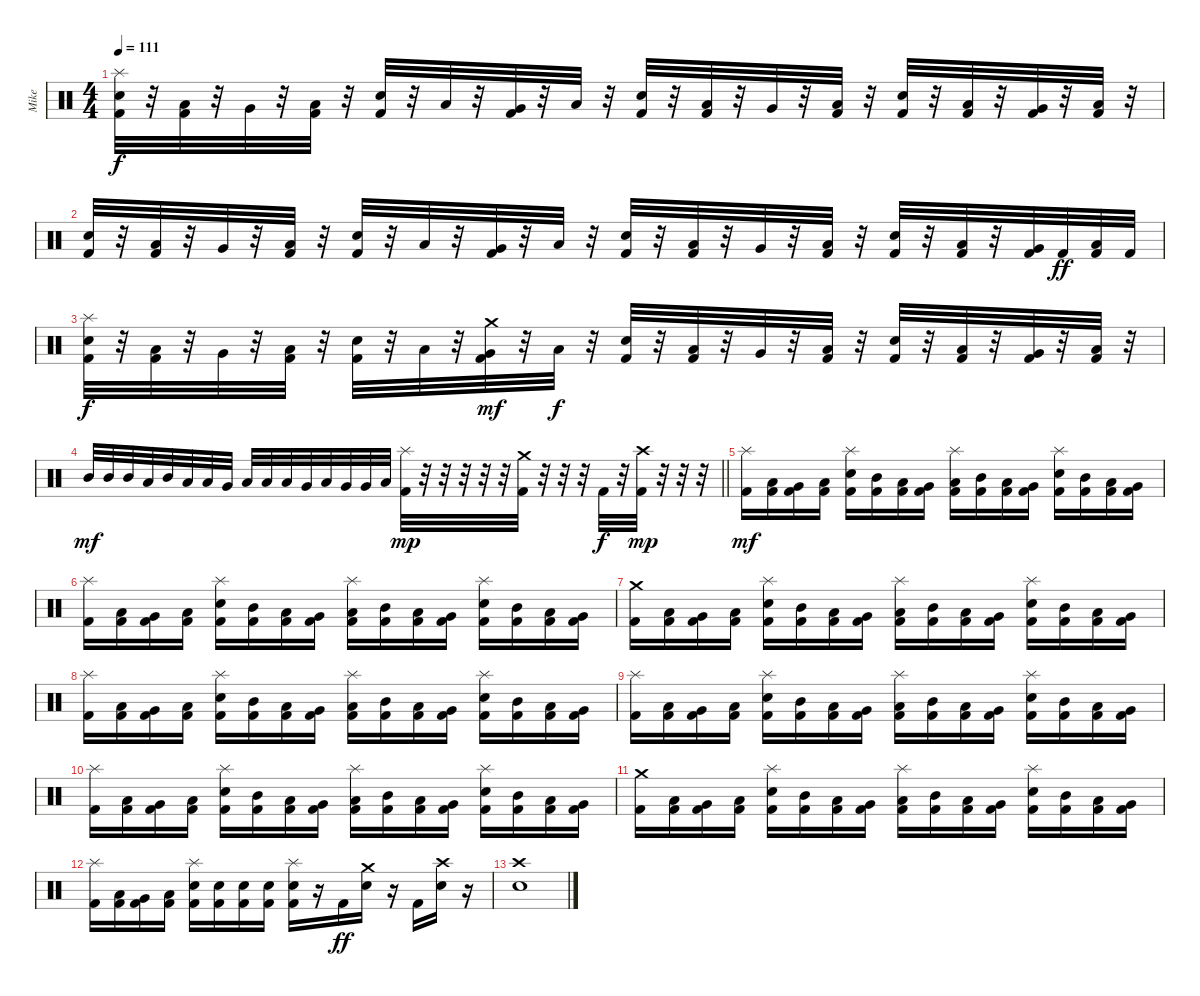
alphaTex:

\track ("Mike" "Mike") {instrument percussion}
\staff {score}
\articulation defaults
\ts (4 4)
\tempo 111
\clef neutral
\ks c
("Splash (hit)" "Snare (hit) 2" "Kick (hit) 2").32{dy f} r.32 ("Low Tom (hit)" "Kick (hit) 2").32 r.32 "Very Low Tom (hit)".32 r.32 ("Low Floor Tom (hit)" "Kick (hit) 2").32 r.32 ("Snare (hit) 2" "Kick (hit) 2").32 r.32 "Low Tom (hit)".32 r.32 ("Very Low Tom (hit)" "Kick (hit) 2").32 r.32 "Low Floor Tom (hit)".32 r.32 ("Snare (hit) 2" "Kick (hit) 2").32 r.32 ("Low Tom (hit)" "Kick (hit) 2").32 r.32 "Very Low Tom (hit)".32 r.32 ("Low Floor Tom (hit)" "Kick (hit) 2").32 r.32 ("Snare (hit) 2" "Kick (hit) 2").32 r.32 ("Low Tom (hit)" "Kick (hit) 2").32 r.32 ("Very Low Tom (hit)" "Kick (hit) 2").32 r.32 ("Low Floor Tom (hit)" "Kick (hit) 2").32 r.32 |
("Snare (hit) 2" "Kick (hit) 2").32 r.32 ("Low Tom (hit)" "Kick (hit) 2").32 r.32 "Very Low Tom (hit)".32 r.32 ("Low Floor Tom (hit)" "Kick (hit) 2").32 r.32 ("Snare (hit) 2" "Kick (hit) 2").32 r.32 "Low Tom (hit)".32 r.32 ("Very Low Tom (hit)" "Kick (hit) 2").32 r.32 "Low Floor Tom (hit)".32 r.32 ("Snare (hit) 2" "Kick (hit) 2").32 r.32 ("Low Tom (hit)" "Kick (hit) 2").32 r.32 "Very Low Tom (hit)".32 r.32 ("Low Floor Tom (hit)" "Kick (hit) 2").32 r.32 ("Snare (hit) 2" "Kick (hit) 2").32 r.32 ("Low Tom (hit)" "Kick (hit) 2").32 r.32 ("Very Low Tom (hit)" "Kick (hit) 2").32 "Kick (hit) 2".32{dy ff} ("Low Floor Tom (hit)" "Kick (hit) 2").32 "Kick (hit) 2".32 |
("Splash (hit)" "Snare (hit) 2" "Kick (hit) 2").32{dy f} r.32 ("Low Tom (hit)" "Kick (hit) 2").32 r.32 "Very Low Tom (hit)".32 r.32 ("Low Floor Tom (hit)" "Kick (hit) 2").32 r.32 ("Snare (hit) 2" "Kick (hit) 2").32 r.32 "Low Tom (hit)".32 r.32 ("Crash medium (hit)" "Very Low Tom (hit)" "Kick (hit) 2").32{dy mf} r.32 "Low Floor Tom (hit)".32{dy f} r.32 ("Snare (hit) 2" "Kick (hit) 2").32 r.32 ("Low Tom (hit)" "Kick (hit) 2").32 r.32 "Very Low Tom (hit)".32 r.32 ("Low Floor Tom (hit)" "Kick (hit) 2").32 r.32 ("Snare (hit) 2" "Kick (hit) 2").32 r.32 ("Low Tom (hit)" "Kick (hit) 2").32 r.32 ("Very Low Tom (hit)" "Kick (hit) 2").32 r.32 ("Low Floor Tom (hit)" "Kick (hit) 2").32 r.32 |
\barLineRight lightlight "Mid Tom (hit)".32{dy mf} "Mid Tom (hit)".32 "Mid Tom (hit)".32 "Low Tom (hit)".32 "Mid Tom (hit)".32 "Low Tom (hit)".32 "Low Tom (hit)".32 "Very Low Tom (hit)".32 "Low Tom (hit)".32 "Low Tom (hit)".32 "Low Tom (hit)".32 "Very Low Tom (hit)".32 "Low Tom (hit)".32 "Very Low Tom (hit)".32 "Very Low Tom (hit)".32 "Low Floor Tom (hit)".32
("Splash (hit)" "Kick (hit) 2").32{dy mp} r.32 r.32 r.32 r.32 r.32 ("Crash medium (hit)" "Kick (hit) 2").32 r.32 r.32 r.32 "Kick (hit) 2".32{dy f} r.32 ("Crash high (hit)" "Kick (hit) 2").32{dy mp} r.32 r.32 r.32 |
("Splash (hit)" "Kick (hit) 2").16{dy mf} ("Low Tom (hit)" "Kick (hit) 2").16 ("Very Low Tom (hit)" "Kick (hit) 2").16 ("Low Tom (hit)" "Kick (hit) 2").16 ("Splash (hit)" "Snare (hit) 2" "Kick (hit) 2").16 ("Mid Tom (hit)" "Kick (hit) 2").16 ("Low Tom (hit)" "Kick (hit) 2").16 ("Very Low Tom (hit)" "Kick (hit) 2").16 ("Splash (hit)" "Low Tom (hit)" "Kick (hit) 2").16 ("Mid Tom (hit)" "Kick (hit) 2").16 ("Low Tom (hit)" "Kick (hit) 2").16 ("Very Low Tom (hit)" "Kick (hit) 2").16 ("Splash (hit)" "Snare (hit) 2" "Kick (hit) 2").16 ("Mid Tom (hit)" "Kick (hit) 2").16 ("Low Tom (hit)" "Kick (hit) 2").16 ("Very Low Tom (hit)" "Kick (hit) 2").16 |
("Splash (hit)" "Kick (hit) 2").16 ("Low Tom (hit)" "Kick (hit) 2").16 ("Very Low Tom (hit)" "Kick (hit) 2").16 ("Low Tom (hit)" "Kick (hit) 2").16 ("Splash (hit)" "Snare (hit) 2" "Kick (hit) 2").16 ("Mid Tom (hit)" "Kick (hit) 2").16 ("Low Tom (hit)" "Kick (hit) 2").16 ("Very Low Tom (hit)" "Kick (hit) 2").16 ("Splash (hit)" "Low Tom (hit)" "Kick (hit) 2").16 ("Mid Tom (hit)" "Kick (hit) 2").16 ("Low Tom (hit)" "Kick (hit) 2").16 ("Very Low Tom (hit)" "Kick (hit) 2").16 ("Splash (hit)" "Snare (hit) 2" "Kick (hit) 2").16 ("Mid Tom (hit)" "Kick (hit) 2").16 ("Low Tom (hit)" "Kick (hit) 2").16 ("Very Low Tom (hit)" "Kick (hit) 2").16 |
("Crash medium (hit)" "Kick (hit) 2").16 ("Low Tom (hit)" "Kick (hit) 2").16 ("Very Low Tom (hit)" "Kick (hit) 2").16 ("Low Tom (hit)" "Kick (hit) 2").16 ("Splash (hit)" "Snare (hit) 2" "Kick (hit) 2").16 ("Mid Tom (hit)" "Kick (hit) 2").16 ("Low Tom (hit)" "Kick (hit) 2").16 ("Very Low Tom (hit)" "Kick (hit) 2").16 ("Splash (hit)" "Low Tom (hit)" "Kick (hit) 2").16 ("Mid Tom (hit)" "Kick (hit) 2").16 ("Low Tom (hit)" "Kick (hit) 2").16 ("Very Low Tom (hit)" "Kick (hit) 2").16 ("Splash (hit)" "Snare (hit) 2" "Kick (hit) 2").16 ("Mid Tom (hit)" "Kick (hit) 2").16 ("Low Tom (hit)" "Kick (hit) 2").16 ("Very Low Tom (hit)" "Kick (hit) 2").16 |
("Splash (hit)" "Kick (hit) 2").16 ("Low Tom (hit)" "Kick (hit) 2").16 ("Very Low Tom (hit)" "Kick (hit) 2").16 ("Low Tom (hit)" "Kick (hit) 2").16 ("Splash (hit)" "Snare (hit) 2" "Kick (hit) 2").16 ("Mid Tom (hit)" "Kick (hit) 2").16 ("Low Tom (hit)" "Kick (hit) 2").16 ("Very Low Tom (hit)" "Kick (hit) 2").16 ("Splash (hit)" "Low Tom (hit)" "Kick (hit) 2").16 ("Mid Tom (hit)" "Kick (hit) 2").16 ("Low Tom (hit)" "Kick (hit) 2").16 ("Very Low Tom (hit)" "Kick (hit) 2").16 ("Splash (hit)" "Snare (hit) 2" "Kick (hit) 2").16 ("Mid Tom (hit)" "Kick (hit) 2").16 ("Low Tom (hit)" "Kick (hit) 2").16 ("Very Low Tom (hit)" "Kick (hit) 2").16 |
("Splash (hit)" "Kick (hit) 2").16 ("Low Tom (hit)" "Kick (hit) 2").16 ("Very Low Tom (hit)" "Kick (hit) 2").16 ("Low Tom (hit)" "Kick (hit) 2").16 ("Splash (hit)" "Snare (hit) 2" "Kick (hit) 2").16 ("Mid Tom (hit)" "Kick (hit) 2").16 ("Low Tom (hit)" "Kick (hit) 2").16 ("Very Low Tom (hit)" "Kick (hit) 2").16 ("Splash (hit)" "Low Tom (hit)" "Kick (hit) 2").16 ("Mid Tom (hit)" "Kick (hit) 2").16 ("Low Tom (hit)" "Kick (hit) 2").16 ("Very Low Tom (hit)" "Kick (hit) 2").16 ("Splash (hit)" "Snare (hit) 2" "Kick (hit) 2").16 ("Mid Tom (hit)" "Kick (hit) 2").16 ("Low Tom (hit)" "Kick (hit) 2").16 ("Very Low Tom (hit)" "Kick (hit) 2").16 |
("Splash (hit)" "Kick (hit) 2").16 ("Low Tom (hit)" "Kick (hit) 2").16 ("Very Low Tom (hit)" "Kick (hit) 2").16 ("Low Tom (hit)" "Kick (hit) 2").16 ("Splash (hit)" "Snare (hit) 2" "Kick (hit) 2").16 ("Mid Tom (hit)" "Kick (hit) 2").16 ("Low Tom (hit)" "Kick (hit) 2").16 ("Very Low Tom (hit)" "Kick (hit) 2").16 ("Splash (hit)" "Low Tom (hit)" "Kick (hit) 2").16 ("Mid Tom (hit)" "Kick (hit) 2").16 ("Low Tom (hit)" "Kick (hit) 2").16 ("Very Low Tom (hit)" "Kick (hit) 2").16 ("Splash (hit)" "Snare (hit) 2" "Kick (hit) 2").16 ("Mid Tom (hit)" "Kick (hit) 2").16 ("Low Tom (hit)" "Kick (hit) 2").16 ("Very Low Tom (hit)" "Kick (hit) 2").16 |
("Crash medium (hit)" "Kick (hit) 2").16 ("Low Tom (hit)" "Kick (hit) 2").16 ("Very Low Tom (hit)" "Kick (hit) 2").16 ("Low Tom (hit)" "Kick (hit) 2").16 ("Splash (hit)" "Snare (hit) 2" "Kick (hit) 2").16 ("Mid Tom (hit)" "Kick (hit) 2").16 ("Low Tom (hit)" "Kick (hit) 2").16 ("Very Low Tom (hit)" "Kick (hit) 2").16 ("Splash (hit)" "Low Tom (hit)" "Kick (hit) 2").16 ("Mid Tom (hit)" "Kick (hit) 2").16 ("Low Tom (hit)" "Kick (hit) 2").16 ("Very Low Tom (hit)" "Kick (hit) 2").16 ("Splash (hit)" "Snare (hit) 2" "Kick (hit) 2").16 ("Mid Tom (hit)" "Kick (hit) 2").16 ("Low Tom (hit)" "Kick (hit) 2").16 ("Very Low Tom (hit)" "Kick (hit) 2").16 |
("Splash (hit)" "Kick (hit) 2").16 ("Low Tom (hit)" "Kick (hit) 2").16 ("Very Low Tom (hit)" "Kick (hit) 2").16 ("Low Tom (hit)" "Kick (hit) 2").16 ("Splash (hit)" "Snare (hit) 2" "Kick (hit) 2").16 ("Snare (hit) 2" "Kick (hit) 2").16 ("Snare (hit) 2" "Kick (hit) 2").16 ("Snare (hit) 2" "Kick (hit) 2").16 ("Splash (hit)" "Snare (hit) 2" "Kick (hit) 2").16 r.16 "Kick (hit) 2".16{dy ff} ("Crash medium (hit)" "Snare (hit) 2").16 r.16 "Kick (hit) 2".16 ("Crash high (hit)" "Snare (hit) 2").16 r.16 |
("Crash high (hit)" "Snare (hit) 2").1
